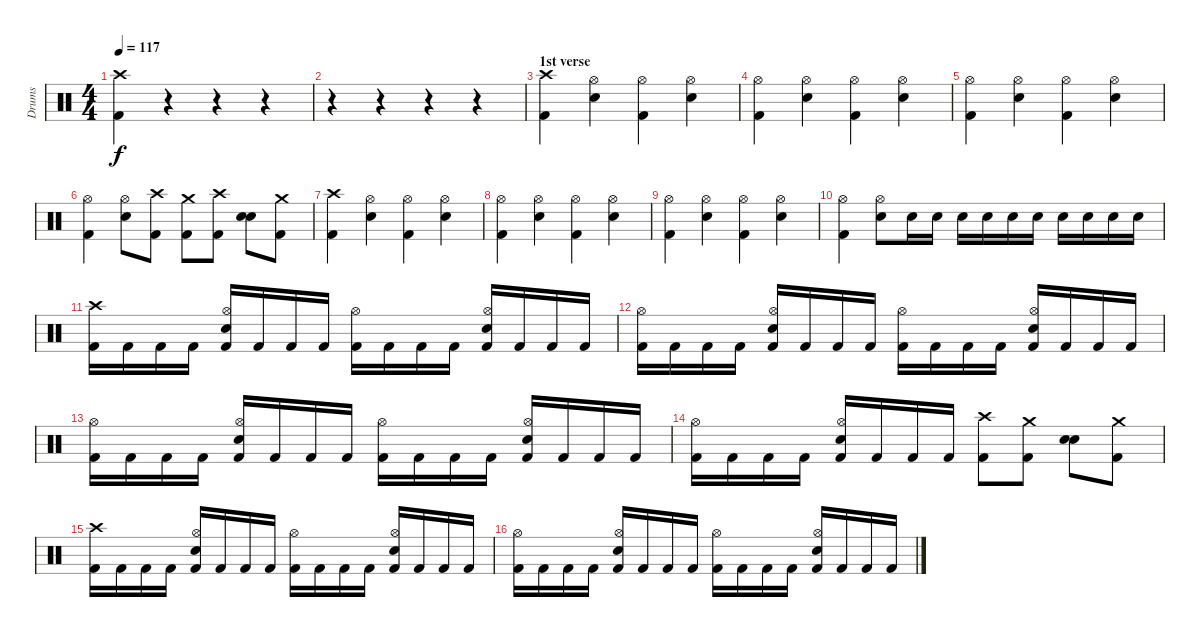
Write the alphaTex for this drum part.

\track ("Drums" "Drums") {instrument percussion}
\staff {score}
\articulation defaults
\ts (4 4)
\tempo 117
\clef neutral
\ks c
("Crash high (hit)" "Kick (hit) 2").4{dy f} r.4 r.4 r.4 |
r.4 r.4 r.4 r.4 |
\section ("" "1st verse")
("Crash high (hit)" "Kick (hit) 2").4 ("Hi-Hat (open)" "Snare (hit) 2").4 ("Hi-Hat (open)" "Kick (hit) 2").4 ("Hi-Hat (open)" "Snare (hit) 2").4 |
("Hi-Hat (open)" "Kick (hit) 2").4 ("Hi-Hat (open)" "Snare (hit) 2").4 ("Hi-Hat (open)" "Kick (hit) 2").4 ("Hi-Hat (open)" "Snare (hit) 2").4 |
("Hi-Hat (open)" "Kick (hit) 2").4 ("Hi-Hat (open)" "Snare (hit) 2").4 ("Hi-Hat (open)" "Kick (hit) 2").4 ("Hi-Hat (open)" "Snare (hit) 2").4 |
("Hi-Hat (open)" "Kick (hit) 2").4 ("Hi-Hat (open)" "Snare (hit) 2").8 ("Crash high (hit)" "Kick (hit) 2").8 ("Crash medium (hit)" "Kick (hit) 2").8 ("Crash high (hit)" "Kick (hit) 2").8 ("Snare (hit) 2" "Snare (hit) 2").8 ("Crash medium (hit)" "Kick (hit) 2").8 |
("Crash high (hit)" "Kick (hit) 2").4 ("Hi-Hat (open)" "Snare (hit) 2").4 ("Hi-Hat (open)" "Kick (hit) 2").4 ("Hi-Hat (open)" "Snare (hit) 2").4 |
("Hi-Hat (open)" "Kick (hit) 2").4 ("Hi-Hat (open)" "Snare (hit) 2").4 ("Hi-Hat (open)" "Kick (hit) 2").4 ("Hi-Hat (open)" "Snare (hit) 2").4 |
("Hi-Hat (open)" "Kick (hit) 2").4 ("Hi-Hat (open)" "Snare (hit) 2").4 ("Hi-Hat (open)" "Kick (hit) 2").4 ("Hi-Hat (open)" "Snare (hit) 2").4 |
("Hi-Hat (open)" "Kick (hit) 2").4 ("Hi-Hat (open)" "Snare (hit) 2").8 "Snare (hit) 2".16 "Snare (hit) 2".16 "Snare (hit) 2".16 "Snare (hit) 2".16 "Snare (hit) 2".16 "Snare (hit) 2".16 "Snare (hit) 2".16 "Snare (hit) 2".16 "Snare (hit) 2".16 "Snare (hit) 2".16 |
("Crash high (hit)" "Kick (hit) 2").16 "Kick (hit) 2".16 "Kick (hit) 2".16 "Kick (hit) 2".16 ("Hi-Hat (open)" "Snare (hit) 2" "Kick (hit) 2").16 "Kick (hit) 2".16 "Kick (hit) 2".16 "Kick (hit) 2".16 ("Hi-Hat (open)" "Kick (hit) 2").16 "Kick (hit) 2".16 "Kick (hit) 2".16 "Kick (hit) 2".16 ("Hi-Hat (open)" "Snare (hit) 2" "Kick (hit) 2").16 "Kick (hit) 2".16 "Kick (hit) 2".16 "Kick (hit) 2".16 |
("Hi-Hat (open)" "Kick (hit) 2").16 "Kick (hit) 2".16 "Kick (hit) 2".16 "Kick (hit) 2".16 ("Hi-Hat (open)" "Snare (hit) 2" "Kick (hit) 2").16 "Kick (hit) 2".16 "Kick (hit) 2".16 "Kick (hit) 2".16 ("Hi-Hat (open)" "Kick (hit) 2").16 "Kick (hit) 2".16 "Kick (hit) 2".16 "Kick (hit) 2".16 ("Hi-Hat (open)" "Snare (hit) 2" "Kick (hit) 2").16 "Kick (hit) 2".16 "Kick (hit) 2".16 "Kick (hit) 2".16 |
("Hi-Hat (open)" "Kick (hit) 2").16 "Kick (hit) 2".16 "Kick (hit) 2".16 "Kick (hit) 2".16 ("Hi-Hat (open)" "Snare (hit) 2" "Kick (hit) 2").16 "Kick (hit) 2".16 "Kick (hit) 2".16 "Kick (hit) 2".16 ("Hi-Hat (open)" "Kick (hit) 2").16 "Kick (hit) 2".16 "Kick (hit) 2".16 "Kick (hit) 2".16 ("Hi-Hat (open)" "Snare (hit) 2" "Kick (hit) 2").16 "Kick (hit) 2".16 "Kick (hit) 2".16 "Kick (hit) 2".16 |
("Hi-Hat (open)" "Kick (hit) 2").16 "Kick (hit) 2".16 "Kick (hit) 2".16 "Kick (hit) 2".16 ("Hi-Hat (open)" "Snare (hit) 2" "Kick (hit) 2").16 "Kick (hit) 2".16 "Kick (hit) 2".16 "Kick (hit) 2".16 ("Crash high (hit)" "Kick (hit) 2").8 ("Crash medium (hit)" "Kick (hit) 2").8 ("Snare (hit) 2" "Snare (hit) 2").8 ("Crash medium (hit)" "Kick (hit) 2").8 |
("Crash high (hit)" "Kick (hit) 2").16 "Kick (hit) 2".16 "Kick (hit) 2".16 "Kick (hit) 2".16 ("Hi-Hat (open)" "Snare (hit) 2" "Kick (hit) 2").16 "Kick (hit) 2".16 "Kick (hit) 2".16 "Kick (hit) 2".16 ("Hi-Hat (open)" "Kick (hit) 2").16 "Kick (hit) 2".16 "Kick (hit) 2".16 "Kick (hit) 2".16 ("Hi-Hat (open)" "Snare (hit) 2" "Kick (hit) 2").16 "Kick (hit) 2".16 "Kick (hit) 2".16 "Kick (hit) 2".16 |
("Hi-Hat (open)" "Kick (hit) 2").16 "Kick (hit) 2".16 "Kick (hit) 2".16 "Kick (hit) 2".16 ("Hi-Hat (open)" "Snare (hit) 2" "Kick (hit) 2").16 "Kick (hit) 2".16 "Kick (hit) 2".16 "Kick (hit) 2".16 ("Hi-Hat (open)" "Kick (hit) 2").16 "Kick (hit) 2".16 "Kick (hit) 2".16 "Kick (hit) 2".16 ("Hi-Hat (open)" "Snare (hit) 2" "Kick (hit) 2").16 "Kick (hit) 2".16 "Kick (hit) 2".16 "Kick (hit) 2".16
